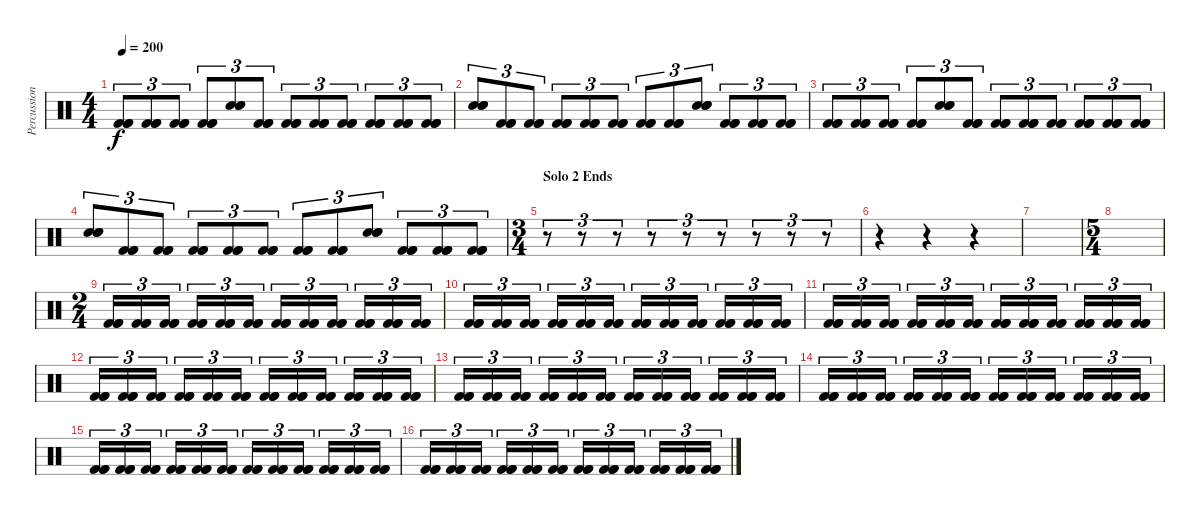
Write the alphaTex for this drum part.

\track ("Percussion" "Percussion") {instrument percussion}
\staff {score}
\articulation defaults
\ts (4 4)
\tempo 200
\clef neutral
\ks c
("Kick (hit) 2" "Kick (hit) 2" "Kick (hit) 2").8{tu (3 2) dy f} ("Kick (hit) 2" "Kick (hit) 2" "Kick (hit) 2").8{tu (3 2)} ("Kick (hit) 2" "Kick (hit) 2" "Kick (hit) 2").8{tu (3 2)} ("Kick (hit) 2" "Kick (hit) 2" "Kick (hit) 2").8{tu (3 2)} ("Snare (hit) 2" "Snare (hit) 2" "Snare (hit) 2").8{tu (3 2)} ("Kick (hit) 2" "Kick (hit) 2" "Kick (hit) 2").8{tu (3 2)} ("Kick (hit) 2" "Kick (hit) 2" "Kick (hit) 2").8{tu (3 2)} ("Kick (hit) 2" "Kick (hit) 2" "Kick (hit) 2").8{tu (3 2)} ("Kick (hit) 2" "Kick (hit) 2" "Kick (hit) 2").8{tu (3 2)} ("Kick (hit) 2" "Kick (hit) 2" "Kick (hit) 2").8{tu (3 2)} ("Kick (hit) 2" "Kick (hit) 2" "Kick (hit) 2").8{tu (3 2)} ("Kick (hit) 2" "Kick (hit) 2" "Kick (hit) 2").8{tu (3 2)} |
("Snare (hit) 2" "Snare (hit) 2" "Snare (hit) 2").8{tu (3 2)} ("Kick (hit) 2" "Kick (hit) 2" "Kick (hit) 2").8{tu (3 2)} ("Kick (hit) 2" "Kick (hit) 2" "Kick (hit) 2").8{tu (3 2)} ("Kick (hit) 2" "Kick (hit) 2" "Kick (hit) 2").8{tu (3 2)} ("Kick (hit) 2" "Kick (hit) 2" "Kick (hit) 2").8{tu (3 2)} ("Kick (hit) 2" "Kick (hit) 2" "Kick (hit) 2").8{tu (3 2)} ("Kick (hit) 2" "Kick (hit) 2" "Kick (hit) 2").8{tu (3 2)} ("Kick (hit) 2" "Kick (hit) 2" "Kick (hit) 2").8{tu (3 2)} ("Snare (hit) 2" "Snare (hit) 2" "Snare (hit) 2").8{tu (3 2)} ("Kick (hit) 2" "Kick (hit) 2" "Kick (hit) 2").8{tu (3 2)} ("Kick (hit) 2" "Kick (hit) 2" "Kick (hit) 2").8{tu (3 2)} ("Kick (hit) 2" "Kick (hit) 2" "Kick (hit) 2").8{tu (3 2)} |
("Kick (hit) 2" "Kick (hit) 2" "Kick (hit) 2").8{tu (3 2)} ("Kick (hit) 2" "Kick (hit) 2" "Kick (hit) 2").8{tu (3 2)} ("Kick (hit) 2" "Kick (hit) 2" "Kick (hit) 2").8{tu (3 2)} ("Kick (hit) 2" "Kick (hit) 2" "Kick (hit) 2").8{tu (3 2)} ("Snare (hit) 2" "Snare (hit) 2" "Snare (hit) 2").8{tu (3 2)} ("Kick (hit) 2" "Kick (hit) 2" "Kick (hit) 2").8{tu (3 2)} ("Kick (hit) 2" "Kick (hit) 2" "Kick (hit) 2").8{tu (3 2)} ("Kick (hit) 2" "Kick (hit) 2" "Kick (hit) 2").8{tu (3 2)} ("Kick (hit) 2" "Kick (hit) 2" "Kick (hit) 2").8{tu (3 2)} ("Kick (hit) 2" "Kick (hit) 2" "Kick (hit) 2").8{tu (3 2)} ("Kick (hit) 2" "Kick (hit) 2" "Kick (hit) 2").8{tu (3 2)} ("Kick (hit) 2" "Kick (hit) 2" "Kick (hit) 2").8{tu (3 2)} |
("Snare (hit) 2" "Snare (hit) 2" "Snare (hit) 2").8{tu (3 2)} ("Kick (hit) 2" "Kick (hit) 2" "Kick (hit) 2").8{tu (3 2)} ("Kick (hit) 2" "Kick (hit) 2" "Kick (hit) 2").8{tu (3 2)} ("Kick (hit) 2" "Kick (hit) 2" "Kick (hit) 2").8{tu (3 2)} ("Kick (hit) 2" "Kick (hit) 2" "Kick (hit) 2").8{tu (3 2)} ("Kick (hit) 2" "Kick (hit) 2" "Kick (hit) 2").8{tu (3 2)} ("Kick (hit) 2" "Kick (hit) 2" "Kick (hit) 2").8{tu (3 2)} ("Kick (hit) 2" "Kick (hit) 2" "Kick (hit) 2").8{tu (3 2)} ("Snare (hit) 2" "Snare (hit) 2" "Snare (hit) 2").8{tu (3 2)} ("Kick (hit) 2" "Kick (hit) 2" "Kick (hit) 2").8{tu (3 2)} ("Kick (hit) 2" "Kick (hit) 2" "Kick (hit) 2").8{tu (3 2)} ("Kick (hit) 2" "Kick (hit) 2" "Kick (hit) 2").8{tu (3 2)} |
\ts (3 4)
\section ("" "Solo 2 Ends")
r.8{tu (3 2) volume 14} r.8{tu (3 2)} r.8{tu (3 2)} r.8{tu (3 2)} r.8{tu (3 2)} r.8{tu (3 2)} r.8{tu (3 2)} r.8{tu (3 2)} r.8{tu (3 2)} |
r.4 r.4 r.4 |
|
\ts (5 4)
|
\ts (2 4)
("Kick (hit) 2" "Kick (hit) 2" "Kick (hit) 2").16{tu (3 2)} ("Kick (hit) 2" "Kick (hit) 2" "Kick (hit) 2").16{tu (3 2)} ("Kick (hit) 2" "Kick (hit) 2" "Kick (hit) 2").16{tu (3 2)} ("Kick (hit) 2" "Kick (hit) 2" "Kick (hit) 2").16{tu (3 2)} ("Kick (hit) 2" "Kick (hit) 2" "Kick (hit) 2").16{tu (3 2)} ("Kick (hit) 2" "Kick (hit) 2" "Kick (hit) 2").16{tu (3 2)} ("Kick (hit) 2" "Kick (hit) 2" "Kick (hit) 2").16{tu (3 2)} ("Kick (hit) 2" "Kick (hit) 2" "Kick (hit) 2").16{tu (3 2)} ("Kick (hit) 2" "Kick (hit) 2" "Kick (hit) 2").16{tu (3 2)} ("Kick (hit) 2" "Kick (hit) 2" "Kick (hit) 2").16{tu (3 2)} ("Kick (hit) 2" "Kick (hit) 2" "Kick (hit) 2").16{tu (3 2)} ("Kick (hit) 2" "Kick (hit) 2" "Kick (hit) 2").16{tu (3 2)} |
("Kick (hit) 2" "Kick (hit) 2" "Kick (hit) 2").16{tu (3 2)} ("Kick (hit) 2" "Kick (hit) 2" "Kick (hit) 2").16{tu (3 2)} ("Kick (hit) 2" "Kick (hit) 2" "Kick (hit) 2").16{tu (3 2)} ("Kick (hit) 2" "Kick (hit) 2" "Kick (hit) 2").16{tu (3 2)} ("Kick (hit) 2" "Kick (hit) 2" "Kick (hit) 2").16{tu (3 2)} ("Kick (hit) 2" "Kick (hit) 2" "Kick (hit) 2").16{tu (3 2)} ("Kick (hit) 2" "Kick (hit) 2" "Kick (hit) 2").16{tu (3 2)} ("Kick (hit) 2" "Kick (hit) 2" "Kick (hit) 2").16{tu (3 2)} ("Kick (hit) 2" "Kick (hit) 2" "Kick (hit) 2").16{tu (3 2)} ("Kick (hit) 2" "Kick (hit) 2" "Kick (hit) 2").16{tu (3 2)} ("Kick (hit) 2" "Kick (hit) 2" "Kick (hit) 2").16{tu (3 2)} ("Kick (hit) 2" "Kick (hit) 2" "Kick (hit) 2").16{tu (3 2)} |
("Kick (hit) 2" "Kick (hit) 2" "Kick (hit) 2").16{tu (3 2)} ("Kick (hit) 2" "Kick (hit) 2" "Kick (hit) 2").16{tu (3 2)} ("Kick (hit) 2" "Kick (hit) 2" "Kick (hit) 2").16{tu (3 2)} ("Kick (hit) 2" "Kick (hit) 2" "Kick (hit) 2").16{tu (3 2)} ("Kick (hit) 2" "Kick (hit) 2" "Kick (hit) 2").16{tu (3 2)} ("Kick (hit) 2" "Kick (hit) 2" "Kick (hit) 2").16{tu (3 2)} ("Kick (hit) 2" "Kick (hit) 2" "Kick (hit) 2").16{tu (3 2)} ("Kick (hit) 2" "Kick (hit) 2" "Kick (hit) 2").16{tu (3 2)} ("Kick (hit) 2" "Kick (hit) 2" "Kick (hit) 2").16{tu (3 2)} ("Kick (hit) 2" "Kick (hit) 2" "Kick (hit) 2").16{tu (3 2)} ("Kick (hit) 2" "Kick (hit) 2" "Kick (hit) 2").16{tu (3 2)} ("Kick (hit) 2" "Kick (hit) 2" "Kick (hit) 2").16{tu (3 2)} |
("Kick (hit) 2" "Kick (hit) 2" "Kick (hit) 2").16{tu (3 2)} ("Kick (hit) 2" "Kick (hit) 2" "Kick (hit) 2").16{tu (3 2)} ("Kick (hit) 2" "Kick (hit) 2" "Kick (hit) 2").16{tu (3 2)} ("Kick (hit) 2" "Kick (hit) 2" "Kick (hit) 2").16{tu (3 2)} ("Kick (hit) 2" "Kick (hit) 2" "Kick (hit) 2").16{tu (3 2)} ("Kick (hit) 2" "Kick (hit) 2" "Kick (hit) 2").16{tu (3 2)} ("Kick (hit) 2" "Kick (hit) 2" "Kick (hit) 2").16{tu (3 2)} ("Kick (hit) 2" "Kick (hit) 2" "Kick (hit) 2").16{tu (3 2)} ("Kick (hit) 2" "Kick (hit) 2" "Kick (hit) 2").16{tu (3 2)} ("Kick (hit) 2" "Kick (hit) 2" "Kick (hit) 2").16{tu (3 2)} ("Kick (hit) 2" "Kick (hit) 2" "Kick (hit) 2").16{tu (3 2)} ("Kick (hit) 2" "Kick (hit) 2" "Kick (hit) 2").16{tu (3 2)} |
("Kick (hit) 2" "Kick (hit) 2" "Kick (hit) 2").16{tu (3 2)} ("Kick (hit) 2" "Kick (hit) 2" "Kick (hit) 2").16{tu (3 2)} ("Kick (hit) 2" "Kick (hit) 2" "Kick (hit) 2").16{tu (3 2)} ("Kick (hit) 2" "Kick (hit) 2" "Kick (hit) 2").16{tu (3 2)} ("Kick (hit) 2" "Kick (hit) 2" "Kick (hit) 2").16{tu (3 2)} ("Kick (hit) 2" "Kick (hit) 2" "Kick (hit) 2").16{tu (3 2)} ("Kick (hit) 2" "Kick (hit) 2" "Kick (hit) 2").16{tu (3 2)} ("Kick (hit) 2" "Kick (hit) 2" "Kick (hit) 2").16{tu (3 2)} ("Kick (hit) 2" "Kick (hit) 2" "Kick (hit) 2").16{tu (3 2)} ("Kick (hit) 2" "Kick (hit) 2" "Kick (hit) 2").16{tu (3 2)} ("Kick (hit) 2" "Kick (hit) 2" "Kick (hit) 2").16{tu (3 2)} ("Kick (hit) 2" "Kick (hit) 2" "Kick (hit) 2").16{tu (3 2)} |
("Kick (hit) 2" "Kick (hit) 2" "Kick (hit) 2").16{tu (3 2)} ("Kick (hit) 2" "Kick (hit) 2" "Kick (hit) 2").16{tu (3 2)} ("Kick (hit) 2" "Kick (hit) 2" "Kick (hit) 2").16{tu (3 2)} ("Kick (hit) 2" "Kick (hit) 2" "Kick (hit) 2").16{tu (3 2)} ("Kick (hit) 2" "Kick (hit) 2" "Kick (hit) 2").16{tu (3 2)} ("Kick (hit) 2" "Kick (hit) 2" "Kick (hit) 2").16{tu (3 2)} ("Kick (hit) 2" "Kick (hit) 2" "Kick (hit) 2").16{tu (3 2)} ("Kick (hit) 2" "Kick (hit) 2" "Kick (hit) 2").16{tu (3 2)} ("Kick (hit) 2" "Kick (hit) 2" "Kick (hit) 2").16{tu (3 2)} ("Kick (hit) 2" "Kick (hit) 2" "Kick (hit) 2").16{tu (3 2)} ("Kick (hit) 2" "Kick (hit) 2" "Kick (hit) 2").16{tu (3 2)} ("Kick (hit) 2" "Kick (hit) 2" "Kick (hit) 2").16{tu (3 2)} |
("Kick (hit) 2" "Kick (hit) 2" "Kick (hit) 2").16{tu (3 2)} ("Kick (hit) 2" "Kick (hit) 2" "Kick (hit) 2").16{tu (3 2)} ("Kick (hit) 2" "Kick (hit) 2" "Kick (hit) 2").16{tu (3 2)} ("Kick (hit) 2" "Kick (hit) 2" "Kick (hit) 2").16{tu (3 2)} ("Kick (hit) 2" "Kick (hit) 2" "Kick (hit) 2").16{tu (3 2)} ("Kick (hit) 2" "Kick (hit) 2" "Kick (hit) 2").16{tu (3 2)} ("Kick (hit) 2" "Kick (hit) 2" "Kick (hit) 2").16{tu (3 2)} ("Kick (hit) 2" "Kick (hit) 2" "Kick (hit) 2").16{tu (3 2)} ("Kick (hit) 2" "Kick (hit) 2" "Kick (hit) 2").16{tu (3 2)} ("Kick (hit) 2" "Kick (hit) 2" "Kick (hit) 2").16{tu (3 2)} ("Kick (hit) 2" "Kick (hit) 2" "Kick (hit) 2").16{tu (3 2)} ("Kick (hit) 2" "Kick (hit) 2" "Kick (hit) 2").16{tu (3 2)} |
("Kick (hit) 2" "Kick (hit) 2" "Kick (hit) 2").16{tu (3 2)} ("Kick (hit) 2" "Kick (hit) 2" "Kick (hit) 2").16{tu (3 2)} ("Kick (hit) 2" "Kick (hit) 2" "Kick (hit) 2").16{tu (3 2)} ("Kick (hit) 2" "Kick (hit) 2" "Kick (hit) 2").16{tu (3 2)} ("Kick (hit) 2" "Kick (hit) 2" "Kick (hit) 2").16{tu (3 2)} ("Kick (hit) 2" "Kick (hit) 2" "Kick (hit) 2").16{tu (3 2)} ("Kick (hit) 2" "Kick (hit) 2" "Kick (hit) 2").16{tu (3 2)} ("Kick (hit) 2" "Kick (hit) 2" "Kick (hit) 2").16{tu (3 2)} ("Kick (hit) 2" "Kick (hit) 2" "Kick (hit) 2").16{tu (3 2)} ("Kick (hit) 2" "Kick (hit) 2" "Kick (hit) 2").16{tu (3 2)} ("Kick (hit) 2" "Kick (hit) 2" "Kick (hit) 2").16{tu (3 2)} ("Kick (hit) 2" "Kick (hit) 2" "Kick (hit) 2").16{tu (3 2)}
